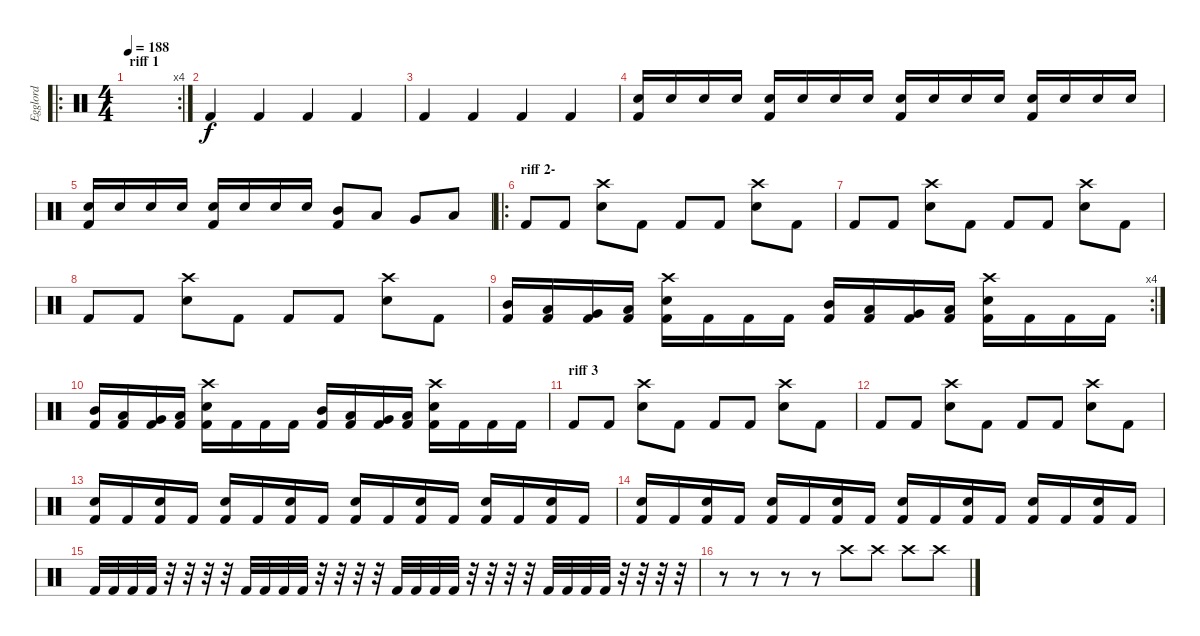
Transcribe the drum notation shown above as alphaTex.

\track ("Egglord" "Egglord") {instrument percussion}
\staff {score}
\articulation defaults
\ro
\rc 4
\ts (4 4)
\section ("" "riff 1")
\tempo 188
\clef neutral
\ks c
|
"Kick (hit) 2".4 "Kick (hit) 2".4 "Kick (hit) 2".4 "Kick (hit) 2".4 |
"Kick (hit) 2".4 "Kick (hit) 2".4 "Kick (hit) 2".4 "Kick (hit) 2".4 |
("Electric Snare (hit)" "Kick (hit) 2").16 "Electric Snare (hit)".16 "Electric Snare (hit)".16 "Electric Snare (hit)".16 ("Electric Snare (hit)" "Kick (hit) 2").16 "Electric Snare (hit)".16 "Electric Snare (hit)".16 "Electric Snare (hit)".16 ("Electric Snare (hit)" "Kick (hit) 2").16 "Electric Snare (hit)".16 "Electric Snare (hit)".16 "Electric Snare (hit)".16 ("Electric Snare (hit)" "Kick (hit) 2").16 "Electric Snare (hit)".16 "Electric Snare (hit)".16 "Electric Snare (hit)".16 |
("Electric Snare (hit)" "Kick (hit) 2").16 "Electric Snare (hit)".16 "Electric Snare (hit)".16 "Electric Snare (hit)".16 ("Electric Snare (hit)" "Kick (hit) 2").16 "Electric Snare (hit)".16 "Electric Snare (hit)".16 "Electric Snare (hit)".16 ("Mid Tom (hit)" "Kick (hit) 2").8 "Low Tom (hit)".8 "Very Low Tom (hit)".8 "Low Floor Tom (hit)".8 |
\ro
\section ("" "riff 2-")
"Kick (hit) 2".8 "Kick (hit) 2".8 ("Crash high (hit)" "Electric Snare (hit)").8 "Kick (hit) 2".8 "Kick (hit) 2".8 "Kick (hit) 2".8 ("Crash high (hit)" "Electric Snare (hit)").8 "Kick (hit) 2".8 |
"Kick (hit) 2".8 "Kick (hit) 2".8 ("Crash high (hit)" "Electric Snare (hit)").8 "Kick (hit) 2".8 "Kick (hit) 2".8 "Kick (hit) 2".8 ("Crash high (hit)" "Electric Snare (hit)").8 "Kick (hit) 2".8 |
"Kick (hit) 2".8 "Kick (hit) 2".8 ("Crash high (hit)" "Electric Snare (hit)").8 "Kick (hit) 2".8 "Kick (hit) 2".8 "Kick (hit) 2".8 ("Crash high (hit)" "Electric Snare (hit)").8 "Kick (hit) 2".8 |
\rc 4
("Mid Tom (hit)" "Kick (hit) 2").16 ("Low Tom (hit)" "Kick (hit) 2").16 ("Very Low Tom (hit)" "Kick (hit) 2").16 ("Low Floor Tom (hit)" "Kick (hit) 2").16 ("Crash high (hit)" "Electric Snare (hit)" "Kick (hit) 2").16 "Kick (hit) 2".16 "Kick (hit) 2".16 "Kick (hit) 2".16 ("Mid Tom (hit)" "Kick (hit) 2").16 ("Low Tom (hit)" "Kick (hit) 2").16 ("Very Low Tom (hit)" "Kick (hit) 2").16 ("Low Floor Tom (hit)" "Kick (hit) 2").16 ("Crash high (hit)" "Electric Snare (hit)" "Kick (hit) 2").16 "Kick (hit) 2".16 "Kick (hit) 2".16 "Kick (hit) 2".16 |
("Mid Tom (hit)" "Kick (hit) 2").16 ("Low Tom (hit)" "Kick (hit) 2").16 ("Very Low Tom (hit)" "Kick (hit) 2").16 ("Low Floor Tom (hit)" "Kick (hit) 2").16 ("Crash high (hit)" "Electric Snare (hit)" "Kick (hit) 2").16 "Kick (hit) 2".16 "Kick (hit) 2".16 "Kick (hit) 2".16 ("Mid Tom (hit)" "Kick (hit) 2").16 ("Low Tom (hit)" "Kick (hit) 2").16 ("Very Low Tom (hit)" "Kick (hit) 2").16 ("Low Floor Tom (hit)" "Kick (hit) 2").16 ("Crash high (hit)" "Electric Snare (hit)" "Kick (hit) 2").16 "Kick (hit) 2".16 "Kick (hit) 2".16 "Kick (hit) 2".16 |
\section ("" "riff 3")
"Kick (hit) 2".8 "Kick (hit) 2".8 ("Crash high (hit)" "Electric Snare (hit)").8 "Kick (hit) 2".8 "Kick (hit) 2".8 "Kick (hit) 2".8 ("Crash high (hit)" "Electric Snare (hit)").8 "Kick (hit) 2".8 |
"Kick (hit) 2".8 "Kick (hit) 2".8 ("Crash high (hit)" "Electric Snare (hit)").8 "Kick (hit) 2".8 "Kick (hit) 2".8 "Kick (hit) 2".8 ("Crash high (hit)" "Electric Snare (hit)").8 "Kick (hit) 2".8 |
("Electric Snare (hit)" "Kick (hit) 2").16 "Kick (hit) 2".16 ("Electric Snare (hit)" "Kick (hit) 2").16 "Kick (hit) 2".16 ("Electric Snare (hit)" "Kick (hit) 2").16 "Kick (hit) 2".16 ("Electric Snare (hit)" "Kick (hit) 2").16 "Kick (hit) 2".16 ("Electric Snare (hit)" "Kick (hit) 2").16 "Kick (hit) 2".16 ("Electric Snare (hit)" "Kick (hit) 2").16 "Kick (hit) 2".16 ("Electric Snare (hit)" "Kick (hit) 2").16 "Kick (hit) 2".16 ("Electric Snare (hit)" "Kick (hit) 2").16 "Kick (hit) 2".16 |
("Electric Snare (hit)" "Kick (hit) 2").16 "Kick (hit) 2".16 ("Electric Snare (hit)" "Kick (hit) 2").16 "Kick (hit) 2".16 ("Electric Snare (hit)" "Kick (hit) 2").16 "Kick (hit) 2".16 ("Electric Snare (hit)" "Kick (hit) 2").16 "Kick (hit) 2".16 ("Electric Snare (hit)" "Kick (hit) 2").16 "Kick (hit) 2".16 ("Electric Snare (hit)" "Kick (hit) 2").16 "Kick (hit) 2".16 ("Electric Snare (hit)" "Kick (hit) 2").16 "Kick (hit) 2".16 ("Electric Snare (hit)" "Kick (hit) 2").16 "Kick (hit) 2".16 |
"Kick (hit) 2".32 "Kick (hit) 2".32 "Kick (hit) 2".32 "Kick (hit) 2".32 r.32 r.32 r.32 r.32 "Kick (hit) 2".32 "Kick (hit) 2".32 "Kick (hit) 2".32 "Kick (hit) 2".32 r.32 r.32 r.32 r.32 "Kick (hit) 2".32 "Kick (hit) 2".32 "Kick (hit) 2".32 "Kick (hit) 2".32 r.32 r.32 r.32 r.32 "Kick (hit) 2".32 "Kick (hit) 2".32 "Kick (hit) 2".32 "Kick (hit) 2".32 r.32 r.32 r.32 r.32 |
r.8 r.8 r.8 r.8 "Crash high (hit)".8 "Crash high (hit)".8 "Crash high (hit)".8 "Crash high (hit)".8
